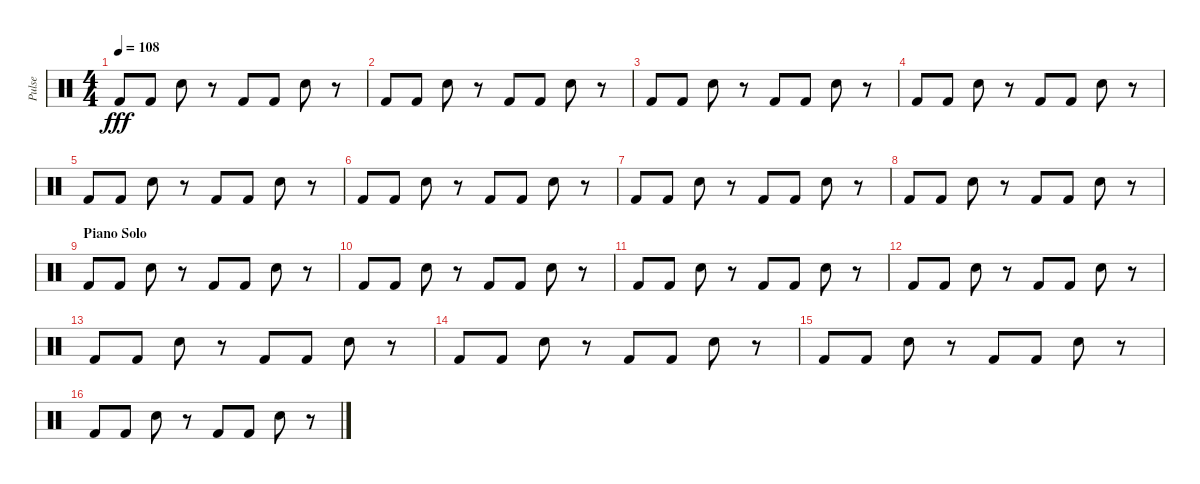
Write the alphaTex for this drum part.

\track ("Pulse" "Pulse") {instrument percussion}
\staff {score}
\articulation defaults
\ts (4 4)
\tempo 108
\clef neutral
\ks c "Kick (hit) 2".8{dy fff} "Kick (hit) 2".8 "Electric Snare (hit)".8
r.8 "Kick (hit) 2".8 "Kick (hit) 2".8 "Electric Snare (hit)".8 r.8 |
"Kick (hit) 2".8 "Kick (hit) 2".8 "Electric Snare (hit)".8 r.8 "Kick (hit) 2".8 "Kick (hit) 2".8 "Electric Snare (hit)".8 r.8 |
"Kick (hit) 2".8 "Kick (hit) 2".8 "Electric Snare (hit)".8 r.8 "Kick (hit) 2".8 "Kick (hit) 2".8 "Electric Snare (hit)".8 r.8 |
"Kick (hit) 2".8 "Kick (hit) 2".8 "Electric Snare (hit)".8 r.8 "Kick (hit) 2".8 "Kick (hit) 2".8 "Electric Snare (hit)".8 r.8 |
"Kick (hit) 2".8 "Kick (hit) 2".8 "Electric Snare (hit)".8 r.8 "Kick (hit) 2".8 "Kick (hit) 2".8 "Electric Snare (hit)".8 r.8 |
"Kick (hit) 2".8 "Kick (hit) 2".8 "Electric Snare (hit)".8 r.8 "Kick (hit) 2".8 "Kick (hit) 2".8 "Electric Snare (hit)".8 r.8 |
"Kick (hit) 2".8 "Kick (hit) 2".8 "Electric Snare (hit)".8 r.8 "Kick (hit) 2".8 "Kick (hit) 2".8 "Electric Snare (hit)".8 r.8 |
"Kick (hit) 2".8 "Kick (hit) 2".8 "Electric Snare (hit)".8 r.8 "Kick (hit) 2".8 "Kick (hit) 2".8 "Electric Snare (hit)".8 r.8 |
\section ("" "Piano Solo")
"Kick (hit) 2".8 "Kick (hit) 2".8 "Electric Snare (hit)".8 r.8 "Kick (hit) 2".8 "Kick (hit) 2".8 "Electric Snare (hit)".8 r.8 |
"Kick (hit) 2".8 "Kick (hit) 2".8 "Electric Snare (hit)".8 r.8 "Kick (hit) 2".8 "Kick (hit) 2".8 "Electric Snare (hit)".8 r.8 |
"Kick (hit) 2".8 "Kick (hit) 2".8 "Electric Snare (hit)".8 r.8 "Kick (hit) 2".8 "Kick (hit) 2".8 "Electric Snare (hit)".8 r.8 |
"Kick (hit) 2".8 "Kick (hit) 2".8 "Electric Snare (hit)".8 r.8 "Kick (hit) 2".8 "Kick (hit) 2".8 "Electric Snare (hit)".8 r.8 |
"Kick (hit) 2".8 "Kick (hit) 2".8 "Electric Snare (hit)".8 r.8 "Kick (hit) 2".8 "Kick (hit) 2".8 "Electric Snare (hit)".8 r.8 |
"Kick (hit) 2".8 "Kick (hit) 2".8 "Electric Snare (hit)".8 r.8 "Kick (hit) 2".8 "Kick (hit) 2".8 "Electric Snare (hit)".8 r.8 |
"Kick (hit) 2".8 "Kick (hit) 2".8 "Electric Snare (hit)".8 r.8 "Kick (hit) 2".8 "Kick (hit) 2".8 "Electric Snare (hit)".8 r.8 |
"Kick (hit) 2".8 "Kick (hit) 2".8 "Electric Snare (hit)".8 r.8 "Kick (hit) 2".8 "Kick (hit) 2".8 "Electric Snare (hit)".8 r.8
